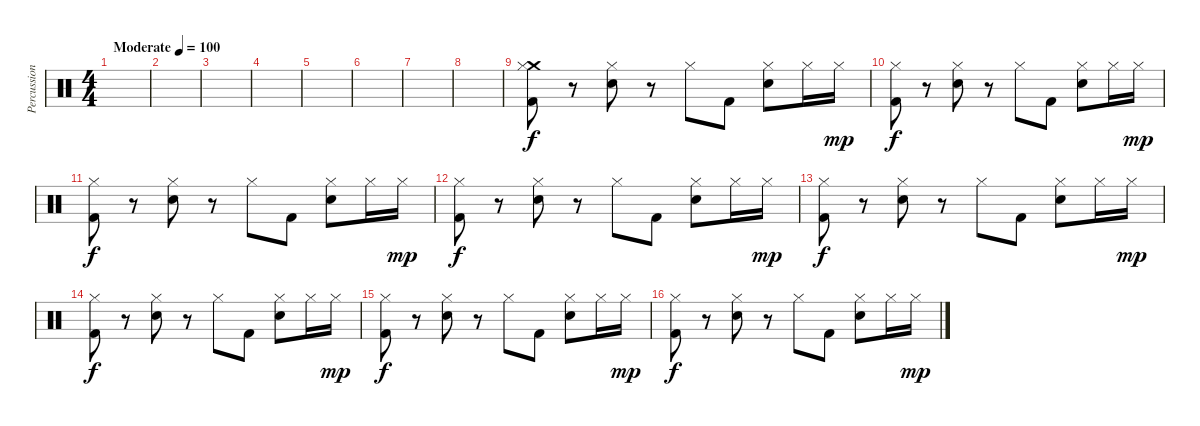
\track ("Percussion" "Percussion") {instrument percussion}
\staff {score}
\articulation defaults
\ts (4 4)
\tempo (100 "Moderate")
\clef neutral
\ks c
|
|
|
|
|
|
|
|
("Crash medium (hit)" "Hi-Hat (closed)" "Kick (hit) 2").8 r.8 ("Hi-Hat (closed)" "Electric Snare (hit)").8 r.8 "Hi-Hat (closed)".8 "Kick (hit) 2".8 ("Hi-Hat (closed)" "Electric Snare (hit)").8 "Hi-Hat (closed)".16 "Hi-Hat (closed)".16{dy mp} |
("Hi-Hat (closed)" "Kick (hit) 2").8{dy f} r.8 ("Hi-Hat (closed)" "Electric Snare (hit)").8 r.8 "Hi-Hat (closed)".8 "Kick (hit) 2".8 ("Hi-Hat (closed)" "Electric Snare (hit)").8 "Hi-Hat (closed)".16 "Hi-Hat (closed)".16{dy mp} |
("Hi-Hat (closed)" "Kick (hit) 2").8{dy f} r.8 ("Hi-Hat (closed)" "Electric Snare (hit)").8 r.8 "Hi-Hat (closed)".8 "Kick (hit) 2".8 ("Hi-Hat (closed)" "Electric Snare (hit)").8 "Hi-Hat (closed)".16 "Hi-Hat (closed)".16{dy mp} |
("Hi-Hat (closed)" "Kick (hit) 2").8{dy f} r.8 ("Hi-Hat (closed)" "Electric Snare (hit)").8 r.8 "Hi-Hat (closed)".8 "Kick (hit) 2".8 ("Hi-Hat (closed)" "Electric Snare (hit)").8 "Hi-Hat (closed)".16 "Hi-Hat (closed)".16{dy mp} |
("Hi-Hat (closed)" "Kick (hit) 2").8{dy f} r.8 ("Hi-Hat (closed)" "Electric Snare (hit)").8 r.8 "Hi-Hat (closed)".8 "Kick (hit) 2".8 ("Hi-Hat (closed)" "Electric Snare (hit)").8 "Hi-Hat (closed)".16 "Hi-Hat (closed)".16{dy mp} |
("Hi-Hat (closed)" "Kick (hit) 2").8{dy f} r.8 ("Hi-Hat (closed)" "Electric Snare (hit)").8 r.8 "Hi-Hat (closed)".8 "Kick (hit) 2".8 ("Hi-Hat (closed)" "Electric Snare (hit)").8 "Hi-Hat (closed)".16 "Hi-Hat (closed)".16{dy mp} |
("Hi-Hat (closed)" "Kick (hit) 2").8{dy f} r.8 ("Hi-Hat (closed)" "Electric Snare (hit)").8 r.8 "Hi-Hat (closed)".8 "Kick (hit) 2".8 ("Hi-Hat (closed)" "Electric Snare (hit)").8 "Hi-Hat (closed)".16 "Hi-Hat (closed)".16{dy mp} |
("Hi-Hat (closed)" "Kick (hit) 2").8{dy f} r.8 ("Hi-Hat (closed)" "Electric Snare (hit)").8 r.8 "Hi-Hat (closed)".8 "Kick (hit) 2".8 ("Hi-Hat (closed)" "Electric Snare (hit)").8 "Hi-Hat (closed)".16 "Hi-Hat (closed)".16{dy mp}
